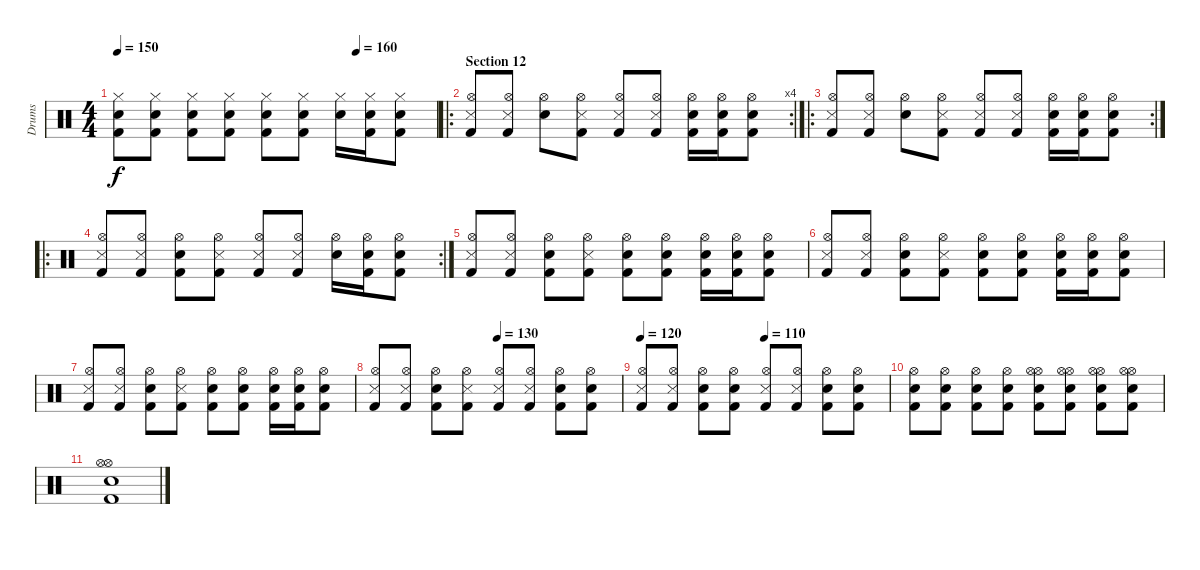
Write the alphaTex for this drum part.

\track ("Drums" "Drums") {instrument percussion}
\staff {score}
\articulation defaults
\ts (4 4)
\tempo 150
\tempo (160 0.75)
\clef neutral
\ks c
("Hi-Hat (closed)" "Snare (hit) 2" "Kick (hit) 2").8{dy f} ("Hi-Hat (closed)" "Snare (hit) 2" "Kick (hit) 2").8 ("Hi-Hat (closed)" "Snare (hit) 2" "Kick (hit) 2").8 ("Hi-Hat (closed)" "Snare (hit) 2" "Kick (hit) 2").8 ("Hi-Hat (closed)" "Snare (hit) 2" "Kick (hit) 2").8 ("Hi-Hat (closed)" "Snare (hit) 2" "Kick (hit) 2").8 ("Hi-Hat (closed)" "Snare (hit) 2").16 ("Hi-Hat (closed)" "Snare (hit) 2" "Kick (hit) 2").16 ("Hi-Hat (closed)" "Snare (hit) 2" "Kick (hit) 2").8 |
\ro
\rc 4
\section ("" "Section 12")
("Hi-Hat (open)" "Snare (side stick) 3" "Kick (hit) 2").8 ("Hi-Hat (open)" "Snare (side stick) 3" "Kick (hit) 2").8 ("Hi-Hat (open)" "Snare (hit) 2").8 ("Hi-Hat (open)" "Snare (side stick) 3" "Kick (hit) 2").8 ("Hi-Hat (open)" "Snare (side stick) 3" "Kick (hit) 2").8 ("Hi-Hat (open)" "Snare (side stick) 3" "Kick (hit) 2").8 ("Hi-Hat (open)" "Snare (hit) 2" "Kick (hit) 2").16 ("Hi-Hat (open)" "Snare (hit) 2" "Kick (hit) 2").16 ("Hi-Hat (open)" "Snare (hit) 2" "Kick (hit) 2").8 |
\ro
\rc 2
("Hi-Hat (open)" "Snare (side stick) 3" "Kick (hit) 2").8 ("Hi-Hat (open)" "Snare (side stick) 3" "Kick (hit) 2").8 ("Hi-Hat (open)" "Snare (hit) 2").8 ("Hi-Hat (open)" "Snare (side stick) 3" "Kick (hit) 2").8 ("Hi-Hat (open)" "Snare (side stick) 3" "Kick (hit) 2").8 ("Hi-Hat (open)" "Snare (side stick) 3" "Kick (hit) 2").8 ("Hi-Hat (open)" "Snare (hit) 2" "Kick (hit) 2").16 ("Hi-Hat (open)" "Snare (hit) 2" "Kick (hit) 2").16 ("Hi-Hat (open)" "Snare (hit) 2" "Kick (hit) 2").8 |
\ro
\rc 2
("Hi-Hat (open)" "Snare (side stick) 3" "Kick (hit) 2").8 ("Hi-Hat (open)" "Snare (side stick) 3" "Kick (hit) 2").8 ("Hi-Hat (open)" "Snare (hit) 2" "Kick (hit) 2").8 ("Hi-Hat (open)" "Snare (side stick) 3" "Kick (hit) 2").8 ("Hi-Hat (open)" "Snare (side stick) 3" "Kick (hit) 2").8 ("Hi-Hat (open)" "Snare (side stick) 3" "Kick (hit) 2").8 ("Hi-Hat (open)" "Snare (hit) 2").16 ("Hi-Hat (open)" "Snare (hit) 2" "Kick (hit) 2").16 ("Hi-Hat (open)" "Snare (hit) 2" "Kick (hit) 2").8 |
("Hi-Hat (open)" "Snare (side stick) 3" "Kick (hit) 2").8 ("Hi-Hat (open)" "Snare (side stick) 3" "Kick (hit) 2").8 ("Hi-Hat (open)" "Snare (hit) 2" "Kick (hit) 2").8 ("Hi-Hat (open)" "Snare (side stick) 3" "Kick (hit) 2").8 ("Hi-Hat (open)" "Snare (hit) 2" "Kick (hit) 2").8 ("Hi-Hat (open)" "Snare (hit) 2" "Kick (hit) 2").8 ("Hi-Hat (open)" "Snare (hit) 2" "Kick (hit) 2").16 ("Hi-Hat (open)" "Snare (hit) 2" "Kick (hit) 2").16 ("Hi-Hat (open)" "Snare (hit) 2" "Kick (hit) 2").8 |
("Hi-Hat (open)" "Snare (side stick) 3" "Kick (hit) 2").8 ("Hi-Hat (open)" "Snare (side stick) 3" "Kick (hit) 2").8 ("Hi-Hat (open)" "Snare (hit) 2" "Kick (hit) 2").8 ("Hi-Hat (open)" "Snare (side stick) 3" "Kick (hit) 2").8 ("Hi-Hat (open)" "Snare (hit) 2" "Kick (hit) 2").8 ("Hi-Hat (open)" "Snare (hit) 2" "Kick (hit) 2").8 ("Hi-Hat (open)" "Snare (hit) 2" "Kick (hit) 2").16 ("Hi-Hat (open)" "Snare (hit) 2" "Kick (hit) 2").16 ("Hi-Hat (open)" "Snare (hit) 2" "Kick (hit) 2").8 |
("Hi-Hat (open)" "Snare (side stick) 3" "Kick (hit) 2").8 ("Hi-Hat (open)" "Snare (side stick) 3" "Kick (hit) 2").8 ("Hi-Hat (open)" "Snare (hit) 2" "Kick (hit) 2").8 ("Hi-Hat (open)" "Snare (side stick) 3" "Kick (hit) 2").8 ("Hi-Hat (open)" "Snare (hit) 2" "Kick (hit) 2").8 ("Hi-Hat (open)" "Snare (hit) 2" "Kick (hit) 2").8 ("Hi-Hat (open)" "Snare (hit) 2" "Kick (hit) 2").16 ("Hi-Hat (open)" "Snare (hit) 2" "Kick (hit) 2").16 ("Hi-Hat (open)" "Snare (hit) 2" "Kick (hit) 2").8 |
\tempo (130 0.5)
("Hi-Hat (open)" "Snare (side stick) 3" "Kick (hit) 2").8 ("Hi-Hat (open)" "Snare (side stick) 3" "Kick (hit) 2").8 ("Hi-Hat (open)" "Snare (hit) 2" "Kick (hit) 2").8 ("Hi-Hat (open)" "Snare (side stick) 3" "Kick (hit) 2").8 ("Hi-Hat (open)" "Snare (side stick) 3" "Kick (hit) 2").8 ("Hi-Hat (open)" "Snare (side stick) 3" "Kick (hit) 2").8 ("Hi-Hat (open)" "Snare (hit) 2" "Kick (hit) 2").8 ("Hi-Hat (open)" "Snare (hit) 2" "Kick (hit) 2").8 |
\tempo 120
\tempo (110 0.5)
("Hi-Hat (open)" "Snare (side stick) 3" "Kick (hit) 2").8 ("Hi-Hat (open)" "Snare (side stick) 3" "Kick (hit) 2").8 ("Hi-Hat (open)" "Snare (hit) 2" "Kick (hit) 2").8 ("Hi-Hat (open)" "Snare (hit) 2" "Kick (hit) 2").8 ("Hi-Hat (open)" "Snare (side stick) 3" "Kick (hit) 2").8 ("Hi-Hat (open)" "Snare (side stick) 3" "Kick (hit) 2").8 ("Hi-Hat (open)" "Snare (hit) 2" "Kick (hit) 2").8 ("Hi-Hat (open)" "Snare (hit) 2" "Kick (hit) 2").8 |
("Hi-Hat (open)" "Snare (hit) 2" "Kick (hit) 2").8 ("Hi-Hat (open)" "Snare (hit) 2" "Kick (hit) 2").8 ("Hi-Hat (open)" "Snare (hit) 2" "Kick (hit) 2").8 ("Hi-Hat (open)" "Snare (hit) 2" "Kick (hit) 2").8 ("Hi-Hat (open)" "Hi-Hat (open)" "Snare (hit) 2" "Kick (hit) 2").8 ("Hi-Hat (open)" "Hi-Hat (open)" "Snare (hit) 2" "Kick (hit) 2").8 ("Hi-Hat (open)" "Hi-Hat (open)" "Snare (hit) 2" "Kick (hit) 2").8 ("Hi-Hat (open)" "Hi-Hat (open)" "Snare (hit) 2" "Kick (hit) 2").8 |
("Hi-Hat (open)" "Hi-Hat (open)" "Snare (hit) 2" "Kick (hit) 2").1
